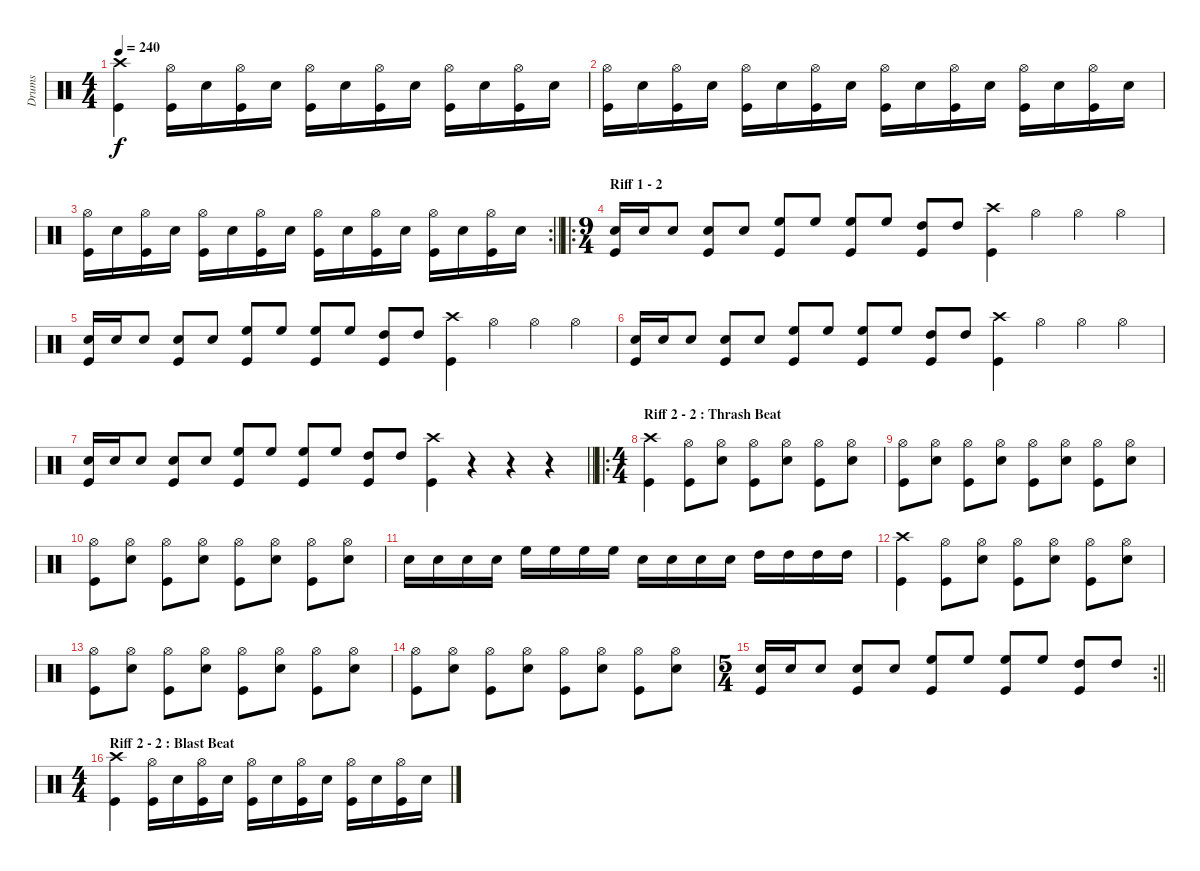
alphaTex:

\track ("Drums " "Drums ") {instrument percussion}
\staff {score}
\articulation defaults
\ts (4 4)
\tempo 240
\clef neutral
\ks c
("Crash high (hit)" "Kick (hit)").4{dy f} ("Hi-Hat (open)" "Kick (hit)").16 "Electric Snare (hit)".16 ("Hi-Hat (open)" "Kick (hit)").16 "Electric Snare (hit)".16 ("Hi-Hat (open)" "Kick (hit)").16 "Electric Snare (hit)".16 ("Hi-Hat (open)" "Kick (hit)").16 "Electric Snare (hit)".16 ("Hi-Hat (open)" "Kick (hit)").16 "Electric Snare (hit)".16 ("Hi-Hat (open)" "Kick (hit)").16 "Electric Snare (hit)".16 |
("Hi-Hat (open)" "Kick (hit)").16 "Electric Snare (hit)".16 ("Hi-Hat (open)" "Kick (hit)").16 "Electric Snare (hit)".16 ("Hi-Hat (open)" "Kick (hit)").16 "Electric Snare (hit)".16 ("Hi-Hat (open)" "Kick (hit)").16 "Electric Snare (hit)".16 ("Hi-Hat (open)" "Kick (hit)").16 "Electric Snare (hit)".16 ("Hi-Hat (open)" "Kick (hit)").16 "Electric Snare (hit)".16 ("Hi-Hat (open)" "Kick (hit)").16 "Electric Snare (hit)".16 ("Hi-Hat (open)" "Kick (hit)").16 "Electric Snare (hit)".16 |
\rc 2
\barLineRight lightlight
("Hi-Hat (open)" "Kick (hit)").16 "Electric Snare (hit)".16 ("Hi-Hat (open)" "Kick (hit)").16 "Electric Snare (hit)".16 ("Hi-Hat (open)" "Kick (hit)").16 "Electric Snare (hit)".16 ("Hi-Hat (open)" "Kick (hit)").16 "Electric Snare (hit)".16 ("Hi-Hat (open)" "Kick (hit)").16 "Electric Snare (hit)".16 ("Hi-Hat (open)" "Kick (hit)").16 "Electric Snare (hit)".16 ("Hi-Hat (open)" "Kick (hit)").16 "Electric Snare (hit)".16 ("Hi-Hat (open)" "Kick (hit)").16 "Electric Snare (hit)".16 |
\ro
\ts (9 4)
\section ("" "Riff 1 - 2")
("Electric Snare (hit)" "Kick (hit)").16 "Electric Snare (hit)".16 "Electric Snare (hit)".8 ("Electric Snare (hit)" "Kick (hit)").8 "Electric Snare (hit)".8 ("High Floor Tom (hit)" "Kick (hit)").8 "High Floor Tom (hit)".8 ("High Floor Tom (hit)" "Kick (hit)").8 "High Floor Tom (hit)".8 ("High Tom (hit)" "Kick (hit)").8 "High Tom (hit)".8 ("Crash high (hit)" "Kick (hit)").4 "Hi-Hat (open)".4 "Hi-Hat (open)".4 "Hi-Hat (open)".4 |
("Electric Snare (hit)" "Kick (hit)").16 "Electric Snare (hit)".16 "Electric Snare (hit)".8 ("Electric Snare (hit)" "Kick (hit)").8 "Electric Snare (hit)".8 ("High Floor Tom (hit)" "Kick (hit)").8 "High Floor Tom (hit)".8 ("High Floor Tom (hit)" "Kick (hit)").8 "High Floor Tom (hit)".8 ("High Tom (hit)" "Kick (hit)").8 "High Tom (hit)".8 ("Crash high (hit)" "Kick (hit)").4 "Hi-Hat (open)".4 "Hi-Hat (open)".4 "Hi-Hat (open)".4 |
("Electric Snare (hit)" "Kick (hit)").16 "Electric Snare (hit)".16 "Electric Snare (hit)".8 ("Electric Snare (hit)" "Kick (hit)").8 "Electric Snare (hit)".8 ("High Floor Tom (hit)" "Kick (hit)").8 "High Floor Tom (hit)".8 ("High Floor Tom (hit)" "Kick (hit)").8 "High Floor Tom (hit)".8 ("High Tom (hit)" "Kick (hit)").8 "High Tom (hit)".8 ("Crash high (hit)" "Kick (hit)").4 "Hi-Hat (open)".4 "Hi-Hat (open)".4 "Hi-Hat (open)".4 |
\barLineRight lightlight
("Electric Snare (hit)" "Kick (hit)").16 "Electric Snare (hit)".16 "Electric Snare (hit)".8 ("Electric Snare (hit)" "Kick (hit)").8 "Electric Snare (hit)".8 ("High Floor Tom (hit)" "Kick (hit)").8 "High Floor Tom (hit)".8 ("High Floor Tom (hit)" "Kick (hit)").8 "High Floor Tom (hit)".8 ("High Tom (hit)" "Kick (hit)").8 "High Tom (hit)".8 ("Crash high (hit)" "Kick (hit)").4 r.4 r.4 r.4 |
\ro
\ts (4 4)
\section ("" "Riff 2 - 2 : Thrash Beat ")
("Crash high (hit)" "Kick (hit)").4 ("Hi-Hat (open)" "Kick (hit)").8 ("Hi-Hat (open)" "Electric Snare (hit)").8 ("Hi-Hat (open)" "Kick (hit)").8 ("Hi-Hat (open)" "Electric Snare (hit)").8 ("Hi-Hat (open)" "Kick (hit)").8 ("Hi-Hat (open)" "Electric Snare (hit)").8 |
("Hi-Hat (open)" "Kick (hit)").8 ("Hi-Hat (open)" "Electric Snare (hit)").8 ("Hi-Hat (open)" "Kick (hit)").8 ("Hi-Hat (open)" "Electric Snare (hit)").8 ("Hi-Hat (open)" "Kick (hit)").8 ("Hi-Hat (open)" "Electric Snare (hit)").8 ("Hi-Hat (open)" "Kick (hit)").8 ("Hi-Hat (open)" "Electric Snare (hit)").8 |
("Hi-Hat (open)" "Kick (hit)").8 ("Hi-Hat (open)" "Electric Snare (hit)").8 ("Hi-Hat (open)" "Kick (hit)").8 ("Hi-Hat (open)" "Electric Snare (hit)").8 ("Hi-Hat (open)" "Kick (hit)").8 ("Hi-Hat (open)" "Electric Snare (hit)").8 ("Hi-Hat (open)" "Kick (hit)").8 ("Hi-Hat (open)" "Electric Snare (hit)").8 |
"Electric Snare (hit)".16 "Electric Snare (hit)".16 "Electric Snare (hit)".16 "Electric Snare (hit)".16 "High Floor Tom (hit)".16 "High Floor Tom (hit)".16 "High Floor Tom (hit)".16 "High Floor Tom (hit)".16 "Electric Snare (hit)".16 "Electric Snare (hit)".16 "Electric Snare (hit)".16 "Electric Snare (hit)".16 "High Tom (hit)".16 "High Tom (hit)".16 "High Tom (hit)".16 "High Tom (hit)".16 |
("Crash high (hit)" "Kick (hit)").4 ("Hi-Hat (open)" "Kick (hit)").8 ("Hi-Hat (open)" "Electric Snare (hit)").8 ("Hi-Hat (open)" "Kick (hit)").8 ("Hi-Hat (open)" "Electric Snare (hit)").8 ("Hi-Hat (open)" "Kick (hit)").8 ("Hi-Hat (open)" "Electric Snare (hit)").8 |
("Hi-Hat (open)" "Kick (hit)").8 ("Hi-Hat (open)" "Electric Snare (hit)").8 ("Hi-Hat (open)" "Kick (hit)").8 ("Hi-Hat (open)" "Electric Snare (hit)").8 ("Hi-Hat (open)" "Kick (hit)").8 ("Hi-Hat (open)" "Electric Snare (hit)").8 ("Hi-Hat (open)" "Kick (hit)").8 ("Hi-Hat (open)" "Electric Snare (hit)").8 |
("Hi-Hat (open)" "Kick (hit)").8 ("Hi-Hat (open)" "Electric Snare (hit)").8 ("Hi-Hat (open)" "Kick (hit)").8 ("Hi-Hat (open)" "Electric Snare (hit)").8 ("Hi-Hat (open)" "Kick (hit)").8 ("Hi-Hat (open)" "Electric Snare (hit)").8 ("Hi-Hat (open)" "Kick (hit)").8 ("Hi-Hat (open)" "Electric Snare (hit)").8 |
\rc 2
\ts (5 4)
\barLineRight lightlight
("Electric Snare (hit)" "Kick (hit)").16 "Electric Snare (hit)".16 "Electric Snare (hit)".8 ("Electric Snare (hit)" "Kick (hit)").8 "Electric Snare (hit)".8 ("High Floor Tom (hit)" "Kick (hit)").8 "High Floor Tom (hit)".8 ("High Floor Tom (hit)" "Kick (hit)").8 "High Floor Tom (hit)".8 ("High Tom (hit)" "Kick (hit)").8 "High Tom (hit)".8 |
\ts (4 4)
\section ("" "Riff 2 - 2 : Blast Beat")
("Crash high (hit)" "Kick (hit)").4 ("Hi-Hat (open)" "Kick (hit)").16 "Electric Snare (hit)".16 ("Hi-Hat (open)" "Kick (hit)").16 "Electric Snare (hit)".16 ("Hi-Hat (open)" "Kick (hit)").16 "Electric Snare (hit)".16 ("Hi-Hat (open)" "Kick (hit)").16 "Electric Snare (hit)".16 ("Hi-Hat (open)" "Kick (hit)").16 "Electric Snare (hit)".16 ("Hi-Hat (open)" "Kick (hit)").16 "Electric Snare (hit)".16
